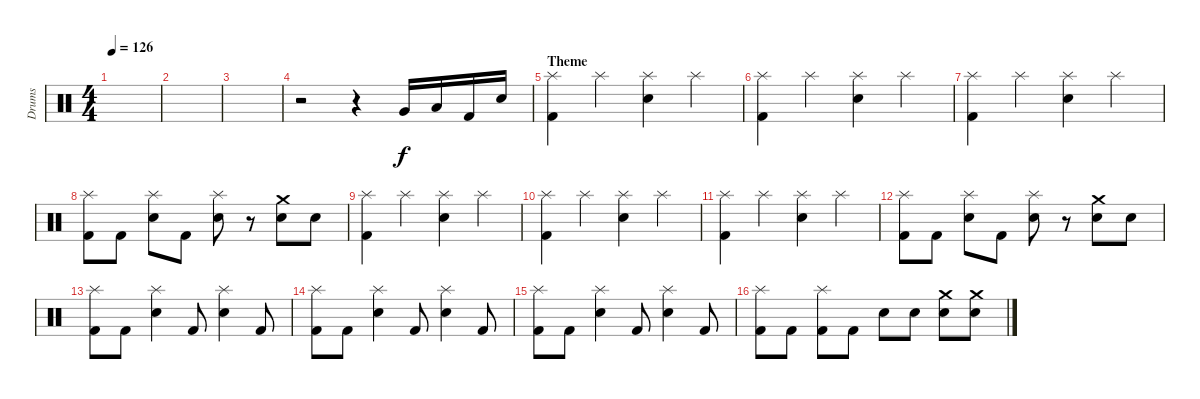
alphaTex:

\track ("Drums" "Drums") {instrument percussion}
\staff {score}
\articulation defaults
\ts (4 4)
\tempo 126
\clef neutral
\ks c
|
|
|
r.2 r.4 "Very Low Tom (hit)".16 "Low Tom (hit)".16 "Kick (hit) 2".16 "Snare (hit) 2".16 |
\section ("" "Theme")
("Splash (hit)" "Kick (hit) 2").4 "Splash (hit)".4 ("Splash (hit)" "Snare (hit) 2").4 "Splash (hit)".4 |
("Splash (hit)" "Kick (hit) 2").4 "Splash (hit)".4 ("Splash (hit)" "Snare (hit) 2").4 "Splash (hit)".4 |
("Splash (hit)" "Kick (hit) 2").4 "Splash (hit)".4 ("Splash (hit)" "Snare (hit) 2").4 "Splash (hit)".4 |
("Splash (hit)" "Kick (hit) 2").8 "Kick (hit) 2".8 ("Splash (hit)" "Snare (hit) 2").8 "Kick (hit) 2".8 ("Splash (hit)" "Snare (hit) 2").8 r.8 ("Crash medium (hit)" "Snare (hit) 2").8 "Snare (hit) 2".8 |
("Splash (hit)" "Kick (hit) 2").4 "Splash (hit)".4 ("Splash (hit)" "Snare (hit) 2").4 "Splash (hit)".4 |
("Splash (hit)" "Kick (hit) 2").4 "Splash (hit)".4 ("Splash (hit)" "Snare (hit) 2").4 "Splash (hit)".4 |
("Splash (hit)" "Kick (hit) 2").4 "Splash (hit)".4 ("Splash (hit)" "Snare (hit) 2").4 "Splash (hit)".4 |
("Splash (hit)" "Kick (hit) 2").8 "Kick (hit) 2".8 ("Splash (hit)" "Snare (hit) 2").8 "Kick (hit) 2".8 ("Splash (hit)" "Snare (hit) 2").8 r.8 ("Crash medium (hit)" "Snare (hit) 2").8 "Snare (hit) 2".8 |
("Splash (hit)" "Kick (hit) 2").8 "Kick (hit) 2".8 ("Splash (hit)" "Snare (hit) 2").4 "Kick (hit) 2".8 ("Splash (hit)" "Snare (hit) 2").4 "Kick (hit) 2".8 |
("Splash (hit)" "Kick (hit) 2").8 "Kick (hit) 2".8 ("Splash (hit)" "Snare (hit) 2").4 "Kick (hit) 2".8 ("Splash (hit)" "Snare (hit) 2").4 "Kick (hit) 2".8 |
("Splash (hit)" "Kick (hit) 2").8 "Kick (hit) 2".8 ("Splash (hit)" "Snare (hit) 2").4 "Kick (hit) 2".8 ("Splash (hit)" "Snare (hit) 2").4 "Kick (hit) 2".8 |
("Splash (hit)" "Kick (hit) 2").8 "Kick (hit) 2".8 ("Splash (hit)" "Kick (hit) 2").8 "Kick (hit) 2".8 "Snare (hit) 2".8 "Snare (hit) 2".8 ("Crash medium (hit)" "Snare (hit) 2").8 ("Crash medium (hit)" "Snare (hit) 2").8
